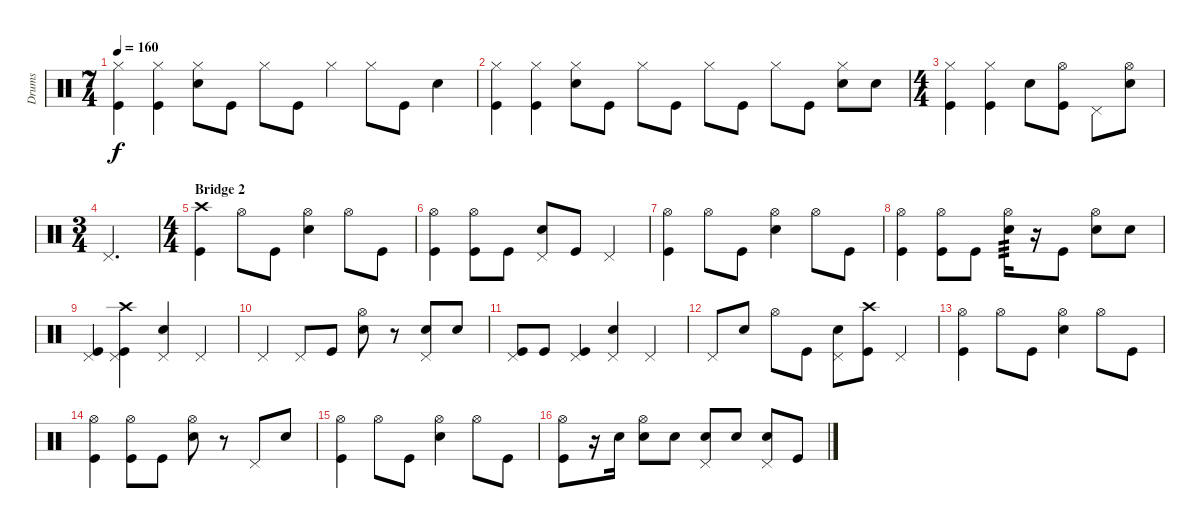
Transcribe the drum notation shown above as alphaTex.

\track ("Drums" "Drums") {instrument percussion}
\staff {score}
\articulation defaults
\ts (7 4)
\tempo 160
\clef neutral
\ks c
("Hi-Hat (closed)" "Kick (hit)").4{dy f} ("Hi-Hat (closed)" "Kick (hit)").4 ("Hi-Hat (closed)" "Snare (hit) 2").8 "Kick (hit)".8 "Hi-Hat (closed)".8 "Kick (hit)".8 "Hi-Hat (closed)".4 "Hi-Hat (closed)".8 "Kick (hit)".8 "Snare (hit) 2".4 |
("Hi-Hat (closed)" "Kick (hit)").4 ("Hi-Hat (closed)" "Kick (hit)").4 ("Hi-Hat (closed)" "Snare (hit) 2").8 "Kick (hit)".8 "Hi-Hat (closed)".8 "Kick (hit)".8 "Hi-Hat (closed)".8 "Kick (hit)".8 "Hi-Hat (closed)".8 "Kick (hit)".8 ("Hi-Hat (closed)" "Snare (hit) 2").8 "Snare (hit) 2".8 |
\ts (4 4)
("Hi-Hat (closed)" "Kick (hit)").4 ("Hi-Hat (closed)" "Kick (hit)").4 "Snare (hit) 2".8 ("Hi-Hat (open)" "Kick (hit)").8 "Pedal Hi-Hat (hit)".8 ("Hi-Hat (open)" "Snare (hit) 2").8 |
\ts (3 4)
"Pedal Hi-Hat (hit)".2{d} |
\ts (4 4)
\section ("" "Bridge 2")
("Crash high (hit)" "Kick (hit)").4 "Hi-Hat (open)".8 "Kick (hit)".8 ("Hi-Hat (open)" "Snare (hit) 2").4 "Hi-Hat (open)".8 "Kick (hit)".8 |
("Hi-Hat (open)" "Kick (hit)").4 ("Hi-Hat (open)" "Kick (hit)").8 "Kick (hit)".8 ("Pedal Hi-Hat (hit)" "Snare (hit) 2").8 "Kick (hit)".8 "Pedal Hi-Hat (hit)".4 |
("Hi-Hat (open)" "Kick (hit)").4 "Hi-Hat (open)".8 "Kick (hit)".8 ("Hi-Hat (open)" "Snare (hit) 2").4 "Hi-Hat (open)".8 "Kick (hit)".8 |
("Hi-Hat (open)" "Kick (hit)").4 ("Hi-Hat (open)" "Kick (hit)").8 "Kick (hit)".8 ("Hi-Hat (open)" "Snare (hit) 2").16{tp 3} r.16 "Kick (hit)".8 ("Hi-Hat (open)" "Snare (hit) 2").8 "Snare (hit) 2".8 |
("Pedal Hi-Hat (hit)" "Kick (hit)").4 ("Pedal Hi-Hat (hit)" "Crash high (hit)" "Kick (hit)").4 ("Pedal Hi-Hat (hit)" "Snare (hit) 2").4 "Pedal Hi-Hat (hit)".4 |
"Pedal Hi-Hat (hit)".4 "Pedal Hi-Hat (hit)".8 "Kick (hit)".8 ("Hi-Hat (open)" "Snare (hit) 2").8 r.8 ("Pedal Hi-Hat (hit)" "Snare (hit) 2").8 "Snare (hit) 2".8 |
("Pedal Hi-Hat (hit)" "Kick (hit)").8 "Kick (hit)".8 ("Pedal Hi-Hat (hit)" "Kick (hit)").4 ("Pedal Hi-Hat (hit)" "Snare (hit) 2").4 "Pedal Hi-Hat (hit)".4 |
"Pedal Hi-Hat (hit)".8 "Snare (hit) 2".8 "Hi-Hat (open)".8 "Kick (hit)".8 ("Pedal Hi-Hat (hit)" "Snare (hit) 2").8 ("Crash high (hit)" "Kick (hit)").8 "Pedal Hi-Hat (hit)".4 |
("Hi-Hat (open)" "Kick (hit)").4 "Hi-Hat (open)".8 "Kick (hit)".8 ("Hi-Hat (open)" "Snare (hit) 2").4 "Hi-Hat (open)".8 "Kick (hit)".8 |
("Hi-Hat (open)" "Kick (hit)").4 ("Hi-Hat (open)" "Kick (hit)").8 "Kick (hit)".8 ("Hi-Hat (open)" "Snare (hit) 2").8 r.8 "Pedal Hi-Hat (hit)".8 "Snare (hit) 2".8 |
("Hi-Hat (open)" "Kick (hit)").4 "Hi-Hat (open)".8 "Kick (hit)".8 ("Hi-Hat (open)" "Snare (hit) 2").4 "Hi-Hat (open)".8 "Kick (hit)".8 |
("Hi-Hat (open)" "Kick (hit)").8 r.16 "Snare (hit) 2".16 ("Hi-Hat (open)" "Snare (hit) 2").8 "Snare (hit) 2".8 ("Pedal Hi-Hat (hit)" "Snare (hit) 2").8 "Snare (hit) 2".8 ("Pedal Hi-Hat (hit)" "Snare (hit) 2").8 "Kick (hit)".8
